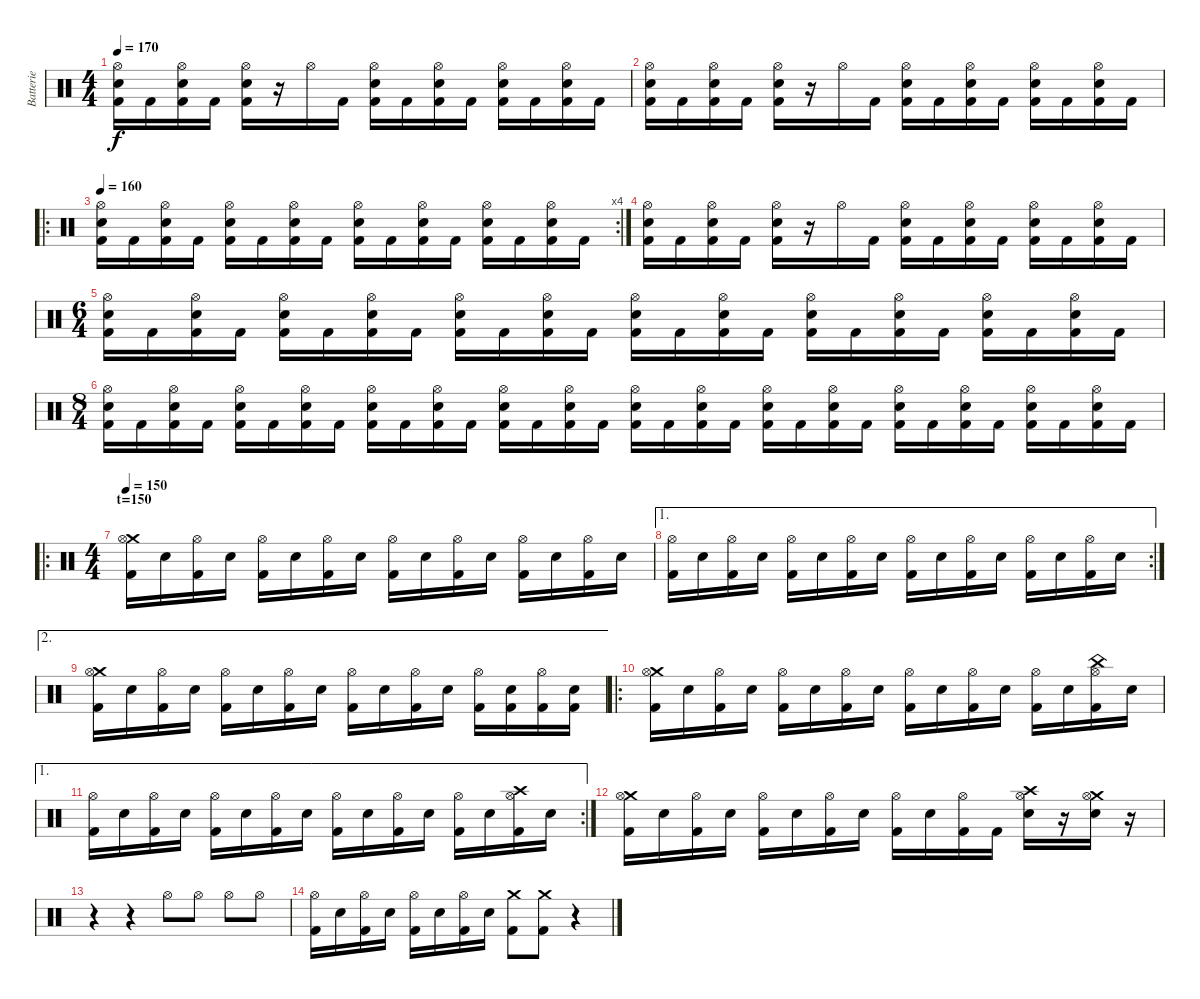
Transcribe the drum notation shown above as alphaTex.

\track ("Batterie" "Batterie") {instrument percussion}
\staff {score}
\articulation defaults
\ts (4 4)
\tempo 170
\clef neutral
\ks c
("Hi-Hat (open)" "Electric Snare (hit)" "Kick (hit) 2").16{dy f} "Kick (hit) 2".16 ("Hi-Hat (open)" "Electric Snare (hit)" "Kick (hit) 2").16 "Kick (hit) 2".16 ("Hi-Hat (open)" "Electric Snare (hit)" "Kick (hit) 2").16 r.16 "Hi-Hat (open)".16 "Kick (hit) 2".16 ("Hi-Hat (open)" "Electric Snare (hit)" "Kick (hit) 2").16 "Kick (hit) 2".16 ("Hi-Hat (open)" "Electric Snare (hit)" "Kick (hit) 2").16 "Kick (hit) 2".16 ("Hi-Hat (open)" "Electric Snare (hit)" "Kick (hit) 2").16 "Kick (hit) 2".16 ("Hi-Hat (open)" "Electric Snare (hit)" "Kick (hit) 2").16 "Kick (hit) 2".16 |
("Hi-Hat (open)" "Electric Snare (hit)" "Kick (hit) 2").16 "Kick (hit) 2".16 ("Hi-Hat (open)" "Electric Snare (hit)" "Kick (hit) 2").16 "Kick (hit) 2".16 ("Hi-Hat (open)" "Electric Snare (hit)" "Kick (hit) 2").16 r.16 "Hi-Hat (open)".16 "Kick (hit) 2".16 ("Hi-Hat (open)" "Electric Snare (hit)" "Kick (hit) 2").16 "Kick (hit) 2".16 ("Hi-Hat (open)" "Electric Snare (hit)" "Kick (hit) 2").16 "Kick (hit) 2".16 ("Hi-Hat (open)" "Electric Snare (hit)" "Kick (hit) 2").16 "Kick (hit) 2".16 ("Hi-Hat (open)" "Electric Snare (hit)" "Kick (hit) 2").16 "Kick (hit) 2".16 |
\ro
\rc 4
\tempo 160
("Hi-Hat (open)" "Electric Snare (hit)" "Kick (hit) 2").16 "Kick (hit) 2".16 ("Hi-Hat (open)" "Electric Snare (hit)" "Kick (hit) 2").16 "Kick (hit) 2".16 ("Hi-Hat (open)" "Electric Snare (hit)" "Kick (hit) 2").16 "Kick (hit) 2".16 ("Hi-Hat (open)" "Electric Snare (hit)" "Kick (hit) 2").16 "Kick (hit) 2".16 ("Hi-Hat (open)" "Electric Snare (hit)" "Kick (hit) 2").16 "Kick (hit) 2".16 ("Hi-Hat (open)" "Electric Snare (hit)" "Kick (hit) 2").16 "Kick (hit) 2".16 ("Hi-Hat (open)" "Electric Snare (hit)" "Kick (hit) 2").16 "Kick (hit) 2".16 ("Hi-Hat (open)" "Electric Snare (hit)" "Kick (hit) 2").16 "Kick (hit) 2".16 |
("Hi-Hat (open)" "Electric Snare (hit)" "Kick (hit) 2").16 "Kick (hit) 2".16 ("Hi-Hat (open)" "Electric Snare (hit)" "Kick (hit) 2").16 "Kick (hit) 2".16 ("Hi-Hat (open)" "Electric Snare (hit)" "Kick (hit) 2").16 r.16 "Hi-Hat (open)".16 "Kick (hit) 2".16 ("Hi-Hat (open)" "Electric Snare (hit)" "Kick (hit) 2").16 "Kick (hit) 2".16 ("Hi-Hat (open)" "Electric Snare (hit)" "Kick (hit) 2").16 "Kick (hit) 2".16 ("Hi-Hat (open)" "Electric Snare (hit)" "Kick (hit) 2").16 "Kick (hit) 2".16 ("Hi-Hat (open)" "Electric Snare (hit)" "Kick (hit) 2").16 "Kick (hit) 2".16 |
\ts (6 4)
("Hi-Hat (open)" "Electric Snare (hit)" "Kick (hit) 2").16 "Kick (hit) 2".16 ("Hi-Hat (open)" "Electric Snare (hit)" "Kick (hit) 2").16 "Kick (hit) 2".16 ("Hi-Hat (open)" "Electric Snare (hit)" "Kick (hit) 2").16 "Kick (hit) 2".16 ("Hi-Hat (open)" "Electric Snare (hit)" "Kick (hit) 2").16 "Kick (hit) 2".16 ("Hi-Hat (open)" "Electric Snare (hit)" "Kick (hit) 2").16 "Kick (hit) 2".16 ("Hi-Hat (open)" "Electric Snare (hit)" "Kick (hit) 2").16 "Kick (hit) 2".16 ("Hi-Hat (open)" "Electric Snare (hit)" "Kick (hit) 2").16 "Kick (hit) 2".16 ("Hi-Hat (open)" "Electric Snare (hit)" "Kick (hit) 2").16 "Kick (hit) 2".16 ("Hi-Hat (open)" "Electric Snare (hit)" "Kick (hit) 2").16 "Kick (hit) 2".16 ("Hi-Hat (open)" "Electric Snare (hit)" "Kick (hit) 2").16 "Kick (hit) 2".16 ("Hi-Hat (open)" "Electric Snare (hit)" "Kick (hit) 2").16 "Kick (hit) 2".16 ("Hi-Hat (open)" "Electric Snare (hit)" "Kick (hit) 2").16 "Kick (hit) 2".16 |
\ts (8 4)
("Hi-Hat (open)" "Electric Snare (hit)" "Kick (hit) 2").16 "Kick (hit) 2".16 ("Hi-Hat (open)" "Electric Snare (hit)" "Kick (hit) 2").16 "Kick (hit) 2".16 ("Hi-Hat (open)" "Electric Snare (hit)" "Kick (hit) 2").16 "Kick (hit) 2".16 ("Hi-Hat (open)" "Electric Snare (hit)" "Kick (hit) 2").16 "Kick (hit) 2".16 ("Hi-Hat (open)" "Electric Snare (hit)" "Kick (hit) 2").16 "Kick (hit) 2".16 ("Hi-Hat (open)" "Electric Snare (hit)" "Kick (hit) 2").16 "Kick (hit) 2".16 ("Hi-Hat (open)" "Electric Snare (hit)" "Kick (hit) 2").16 "Kick (hit) 2".16 ("Hi-Hat (open)" "Electric Snare (hit)" "Kick (hit) 2").16 "Kick (hit) 2".16 ("Hi-Hat (open)" "Electric Snare (hit)" "Kick (hit) 2").16 "Kick (hit) 2".16 ("Hi-Hat (open)" "Electric Snare (hit)" "Kick (hit) 2").16 "Kick (hit) 2".16 ("Hi-Hat (open)" "Electric Snare (hit)" "Kick (hit) 2").16 "Kick (hit) 2".16 ("Hi-Hat (open)" "Electric Snare (hit)" "Kick (hit) 2").16 "Kick (hit) 2".16 ("Hi-Hat (open)" "Electric Snare (hit)" "Kick (hit) 2").16 "Kick (hit) 2".16 ("Hi-Hat (open)" "Electric Snare (hit)" "Kick (hit) 2").16 "Kick (hit) 2".16 ("Hi-Hat (open)" "Electric Snare (hit)" "Kick (hit) 2").16 "Kick (hit) 2".16 ("Hi-Hat (open)" "Electric Snare (hit)" "Kick (hit) 2").16 "Kick (hit) 2".16 |
\ro
\ts (4 4)
\section ("" "t=150")
\tempo 150
("Crash medium (hit)" "Hi-Hat (open)" "Kick (hit) 2").16 "Electric Snare (hit)".16 ("Hi-Hat (open)" "Kick (hit) 2").16 "Electric Snare (hit)".16 ("Hi-Hat (open)" "Kick (hit) 2").16 "Electric Snare (hit)".16 ("Hi-Hat (open)" "Kick (hit) 2").16 "Electric Snare (hit)".16 ("Hi-Hat (open)" "Kick (hit) 2").16 "Electric Snare (hit)".16 ("Hi-Hat (open)" "Kick (hit) 2").16 "Electric Snare (hit)".16 ("Hi-Hat (open)" "Kick (hit) 2").16 "Electric Snare (hit)".16 ("Hi-Hat (open)" "Kick (hit) 2").16 "Electric Snare (hit)".16 |
\ae 1
\rc 2
("Hi-Hat (open)" "Kick (hit) 2").16 "Electric Snare (hit)".16 ("Hi-Hat (open)" "Kick (hit) 2").16 "Electric Snare (hit)".16 ("Hi-Hat (open)" "Kick (hit) 2").16 "Electric Snare (hit)".16 ("Hi-Hat (open)" "Kick (hit) 2").16 "Electric Snare (hit)".16 ("Hi-Hat (open)" "Kick (hit) 2").16 "Electric Snare (hit)".16 ("Hi-Hat (open)" "Kick (hit) 2").16 "Electric Snare (hit)".16 ("Hi-Hat (open)" "Kick (hit) 2").16 "Electric Snare (hit)".16 ("Hi-Hat (open)" "Kick (hit) 2").16 "Electric Snare (hit)".16 |
\ae 2
("Crash medium (hit)" "Hi-Hat (open)" "Kick (hit) 2").16 "Electric Snare (hit)".16 ("Hi-Hat (open)" "Kick (hit) 2").16 "Electric Snare (hit)".16 ("Hi-Hat (open)" "Kick (hit) 2").16 "Electric Snare (hit)".16 ("Hi-Hat (open)" "Kick (hit) 2").16 "Electric Snare (hit)".16 ("Hi-Hat (open)" "Kick (hit) 2").16 "Electric Snare (hit)".16 ("Hi-Hat (open)" "Kick (hit) 2").16 "Electric Snare (hit)".16 ("Hi-Hat (open)" "Kick (hit) 2").16 ("Kick (hit) 2" "Electric Snare (hit)").16 ("Hi-Hat (open)" "Kick (hit) 2").16 ("Kick (hit) 2" "Electric Snare (hit)").16 |
\ro
("Crash medium (hit)" "Hi-Hat (open)" "Kick (hit) 2").16 "Electric Snare (hit)".16 ("Hi-Hat (open)" "Kick (hit) 2").16 "Electric Snare (hit)".16 ("Hi-Hat (open)" "Kick (hit) 2").16 "Electric Snare (hit)".16 ("Hi-Hat (open)" "Kick (hit) 2").16 "Electric Snare (hit)".16 ("Hi-Hat (open)" "Kick (hit) 2").16 "Electric Snare (hit)".16 ("Hi-Hat (open)" "Kick (hit) 2").16 "Electric Snare (hit)".16 ("Hi-Hat (open)" "Kick (hit) 2").16 "Electric Snare (hit)".16 ("China (hit)" "Hi-Hat (open)" "Kick (hit) 2").16 "Electric Snare (hit)".16 |
\ae 1
\rc 2
("Hi-Hat (open)" "Kick (hit) 2").16 "Electric Snare (hit)".16 ("Hi-Hat (open)" "Kick (hit) 2").16 "Electric Snare (hit)".16 ("Hi-Hat (open)" "Kick (hit) 2").16 "Electric Snare (hit)".16 ("Hi-Hat (open)" "Kick (hit) 2").16 "Electric Snare (hit)".16 ("Hi-Hat (open)" "Kick (hit) 2").16 "Electric Snare (hit)".16 ("Hi-Hat (open)" "Kick (hit) 2").16 "Electric Snare (hit)".16 ("Hi-Hat (open)" "Kick (hit) 2").16 "Electric Snare (hit)".16 ("Crash high (hit)" "Hi-Hat (open)" "Kick (hit) 2").16 "Electric Snare (hit)".16 |
("Crash medium (hit)" "Hi-Hat (open)" "Kick (hit) 2").16 "Electric Snare (hit)".16 ("Hi-Hat (open)" "Kick (hit) 2").16 "Electric Snare (hit)".16 ("Hi-Hat (open)" "Kick (hit) 2").16 "Electric Snare (hit)".16 ("Hi-Hat (open)" "Kick (hit) 2").16 "Electric Snare (hit)".16 ("Hi-Hat (open)" "Kick (hit) 2").16 "Electric Snare (hit)".16 ("Hi-Hat (open)" "Kick (hit) 2").16 "Kick (hit) 2".16 ("Crash high (hit)" "Hi-Hat (open)" "Electric Snare (hit)").16 r.16 ("Crash medium (hit)" "Hi-Hat (open)" "Electric Snare (hit)").16 r.16 |
r.4 r.4 "Hi-Hat (open)".8 "Hi-Hat (open)".8 "Hi-Hat (open)".8 "Hi-Hat (open)".8 |
("Hi-Hat (open)" "Kick (hit) 2").16 "Electric Snare (hit)".16 ("Hi-Hat (open)" "Kick (hit) 2").16 "Electric Snare (hit)".16 ("Hi-Hat (open)" "Kick (hit) 2").16 "Electric Snare (hit)".16 ("Hi-Hat (open)" "Kick (hit) 2").16 "Electric Snare (hit)".16 ("Crash medium (hit)" "Kick (hit) 2").8 ("Crash medium (hit)" "Kick (hit) 2").8 r.4
